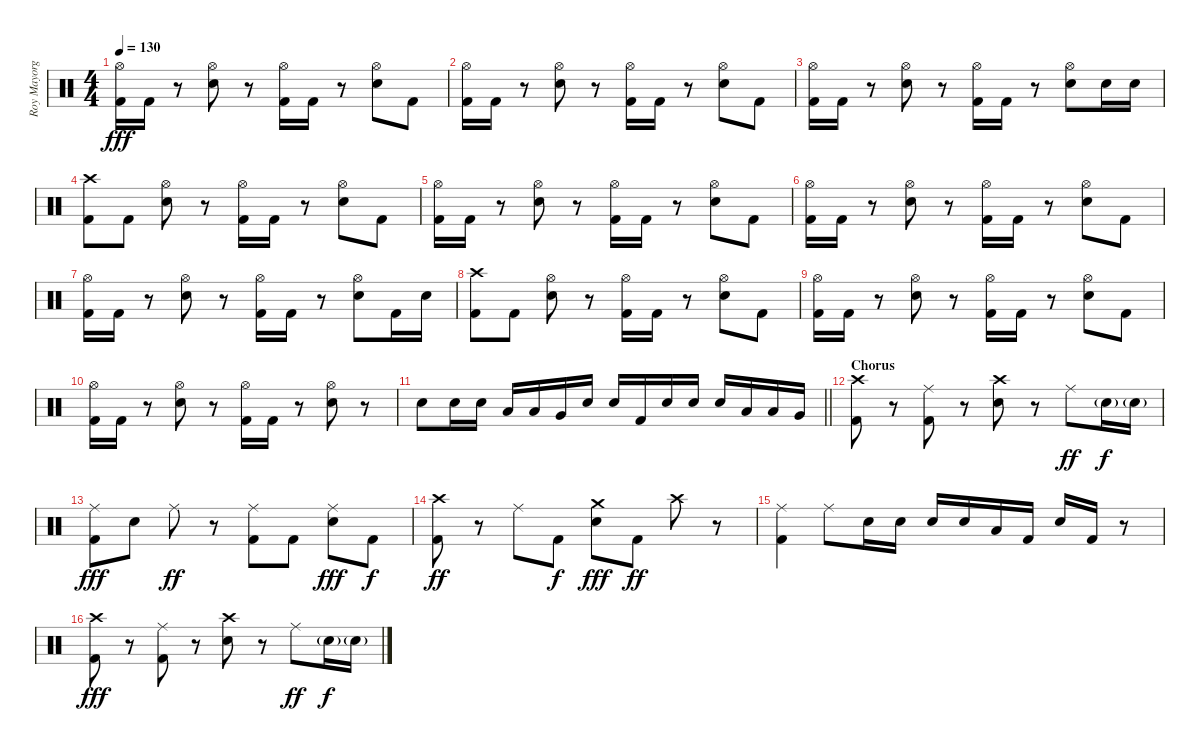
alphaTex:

\track ("Roy Mayorga (Drums)" "Roy Mayorg") {instrument percussion}
\staff {score}
\articulation defaults
\ts (4 4)
\tempo 130
\clef neutral
\ks c
("Hi-Hat (open)" "Kick (hit) 2").16{dy fff} "Kick (hit) 2".16 r.8 ("Hi-Hat (open)" "Electric Snare (hit)").8 r.8 ("Hi-Hat (open)" "Kick (hit) 2").16 "Kick (hit) 2".16 r.8 ("Hi-Hat (open)" "Electric Snare (hit)").8 "Kick (hit) 2".8 |
("Hi-Hat (open)" "Kick (hit) 2").16 "Kick (hit) 2".16 r.8 ("Hi-Hat (open)" "Electric Snare (hit)").8 r.8 ("Hi-Hat (open)" "Kick (hit) 2").16 "Kick (hit) 2".16 r.8 ("Hi-Hat (open)" "Electric Snare (hit)").8 "Kick (hit) 2".8 |
("Hi-Hat (open)" "Kick (hit) 2").16 "Kick (hit) 2".16 r.8 ("Hi-Hat (open)" "Electric Snare (hit)").8 r.8 ("Hi-Hat (open)" "Kick (hit) 2").16 "Kick (hit) 2".16 r.8 ("Hi-Hat (open)" "Electric Snare (hit)").8 "Electric Snare (hit)".16 "Electric Snare (hit)".16 |
("Crash high (hit)" "Kick (hit) 2").8 "Kick (hit) 2".8 ("Hi-Hat (open)" "Electric Snare (hit)").8 r.8 ("Hi-Hat (open)" "Kick (hit) 2").16 "Kick (hit) 2".16 r.8 ("Hi-Hat (open)" "Electric Snare (hit)").8 "Kick (hit) 2".8 |
("Hi-Hat (open)" "Kick (hit) 2").16 "Kick (hit) 2".16 r.8 ("Hi-Hat (open)" "Electric Snare (hit)").8 r.8 ("Hi-Hat (open)" "Kick (hit) 2").16 "Kick (hit) 2".16 r.8 ("Hi-Hat (open)" "Electric Snare (hit)").8 "Kick (hit) 2".8 |
("Hi-Hat (open)" "Kick (hit) 2").16 "Kick (hit) 2".16 r.8 ("Hi-Hat (open)" "Electric Snare (hit)").8 r.8 ("Hi-Hat (open)" "Kick (hit) 2").16 "Kick (hit) 2".16 r.8 ("Hi-Hat (open)" "Electric Snare (hit)").8 "Kick (hit) 2".8 |
("Hi-Hat (open)" "Kick (hit) 2").16 "Kick (hit) 2".16 r.8 ("Hi-Hat (open)" "Electric Snare (hit)").8 r.8 ("Hi-Hat (open)" "Kick (hit) 2").16 "Kick (hit) 2".16 r.8 ("Hi-Hat (open)" "Electric Snare (hit)").8 "Kick (hit) 2".16 "Electric Snare (hit)".16 |
("Crash high (hit)" "Kick (hit) 2").8 "Kick (hit) 2".8 ("Hi-Hat (open)" "Electric Snare (hit)").8 r.8 ("Hi-Hat (open)" "Kick (hit) 2").16 "Kick (hit) 2".16 r.8 ("Hi-Hat (open)" "Electric Snare (hit)").8 "Kick (hit) 2".8 |
("Hi-Hat (open)" "Kick (hit) 2").16 "Kick (hit) 2".16 r.8 ("Hi-Hat (open)" "Electric Snare (hit)").8 r.8 ("Hi-Hat (open)" "Kick (hit) 2").16 "Kick (hit) 2".16 r.8 ("Hi-Hat (open)" "Electric Snare (hit)").8 "Kick (hit) 2".8 |
("Hi-Hat (open)" "Kick (hit) 2").16 "Kick (hit) 2".16 r.8 ("Hi-Hat (open)" "Electric Snare (hit)").8 r.8 ("Hi-Hat (open)" "Kick (hit) 2").16 "Kick (hit) 2".16 r.8 ("Hi-Hat (open)" "Electric Snare (hit)").8 r.8 |
\barLineRight lightlight "Electric Snare (hit)".8 "Electric Snare (hit)".16 "Electric Snare (hit)".16 "Low Tom (hit)".16 "Low Tom (hit)".16 "Very Low Tom (hit)".16 "Electric Snare (hit)".16 "Electric Snare (hit)".16 "Kick (hit) 2".16 "Electric Snare (hit)".16 "Electric Snare (hit)".16 "Electric Snare (hit)".16 "Low Tom (hit)".16 "Low Tom (hit)".16 "Very Low Tom (hit)".16
|
\section ("" "Chorus")
("Crash high (hit)" "Kick (hit) 2").8 r.8 ("Ride (middle)" "Kick (hit) 2").8 r.8 ("Crash high (hit)" "Electric Snare (hit)").8 r.8 "Ride (middle)".8{dy ff} "Electric Snare (hit)"{g}.16{dy f} "Electric Snare (hit)"{g}.16 |
("Ride (middle)" "Kick (hit) 2").8{dy fff} "Electric Snare (hit)".8 "Ride (middle)".8{dy ff} r.8 ("Ride (middle)" "Kick (hit) 2").8 "Kick (hit) 2".8 ("Ride (middle)" "Electric Snare (hit)").8{dy fff} "Kick (hit) 2".8{dy f} |
("Crash high (hit)" "Kick (hit) 2").8{dy ff} r.8 "Ride (middle)".8 "Kick (hit) 2".8{dy f} ("Crash medium (hit)" "Electric Snare (hit)").8{dy fff} "Kick (hit) 2".8{dy ff} "Crash high (hit)".8 r.8 |
("Ride (middle)" "Kick (hit) 2").4 "Ride (middle)".8 "Electric Snare (hit)".16 "Electric Snare (hit)".16 "Electric Snare (hit)".16 "Electric Snare (hit)".16 "Low Tom (hit)".16 "Kick (hit) 2".16 "Electric Snare (hit)".16 "Kick (hit) 2".16 r.8 |
("Crash high (hit)" "Kick (hit) 2").8{dy fff} r.8 ("Ride (middle)" "Kick (hit) 2").8 r.8 ("Crash high (hit)" "Electric Snare (hit)").8 r.8 "Ride (middle)".8{dy ff} "Electric Snare (hit)"{g}.16{dy f} "Electric Snare (hit)"{g}.16
